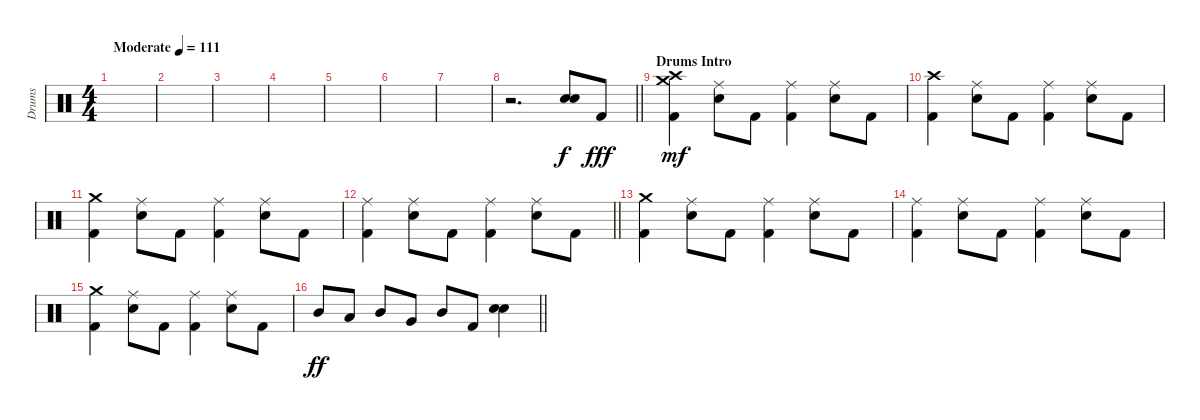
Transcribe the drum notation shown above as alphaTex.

\track ("Drums" "Drums") {instrument percussion}
\staff {score}
\articulation defaults
\ts (4 4)
\tempo (111 "Moderate")
\clef neutral
\ks c
|
|
|
|
|
|
|
\barLineRight lightlight
r.2{d} ("Electric Snare (hit)" "Electric Snare (hit)").8{bd 30} "Kick (hit) 2".8{dy fff} |
\section ("" "Drums Intro")
("Crash medium (hit)" "Crash high (hit)" "Kick (hit) 2").4{dy mf} ("Ride (middle)" "Electric Snare (hit)").8 "Kick (hit) 2".8 ("Ride (middle)" "Kick (hit) 2").4 ("Ride (middle)" "Electric Snare (hit)").8 "Kick (hit) 2".8 |
("Crash high (hit)" "Kick (hit) 2").4 ("Ride (middle)" "Electric Snare (hit)").8 "Kick (hit) 2".8 ("Ride (middle)" "Kick (hit) 2").4 ("Ride (middle)" "Electric Snare (hit)").8 "Kick (hit) 2".8 |
("Crash medium (hit)" "Kick (hit) 2").4 ("Ride (middle)" "Electric Snare (hit)").8 "Kick (hit) 2".8 ("Ride (middle)" "Kick (hit) 2").4 ("Ride (middle)" "Electric Snare (hit)").8 "Kick (hit) 2".8 |
\barLineRight lightlight
("Ride (middle)" "Kick (hit) 2").4 ("Ride (middle)" "Electric Snare (hit)").8 "Kick (hit) 2".8 ("Ride (middle)" "Kick (hit) 2").4 ("Ride (middle)" "Electric Snare (hit)").8 "Kick (hit) 2".8 |
("Crash medium (hit)" "Kick (hit) 2").4 ("Ride (middle)" "Electric Snare (hit)").8 "Kick (hit) 2".8 ("Ride (middle)" "Kick (hit) 2").4 ("Ride (middle)" "Electric Snare (hit)").8 "Kick (hit) 2".8 |
("Ride (middle)" "Kick (hit) 2").4 ("Ride (middle)" "Electric Snare (hit)").8 "Kick (hit) 2".8 ("Ride (middle)" "Kick (hit) 2").4 ("Ride (middle)" "Electric Snare (hit)").8 "Kick (hit) 2".8 |
("Crash medium (hit)" "Kick (hit) 2").4 ("Ride (middle)" "Electric Snare (hit)").8 "Kick (hit) 2".8 ("Ride (middle)" "Kick (hit) 2").4 ("Ride (middle)" "Electric Snare (hit)").8 "Kick (hit) 2".8 |
\barLineRight lightlight "Mid Tom (hit)".8{dy ff} "Low Tom (hit)".8 "Mid Tom (hit)".8 "Very Low Tom (hit)".8 "Mid Tom (hit)".8 "Kick (hit) 2".8
("Electric Snare (hit)" "Electric Snare (hit)").4{bd 60}
